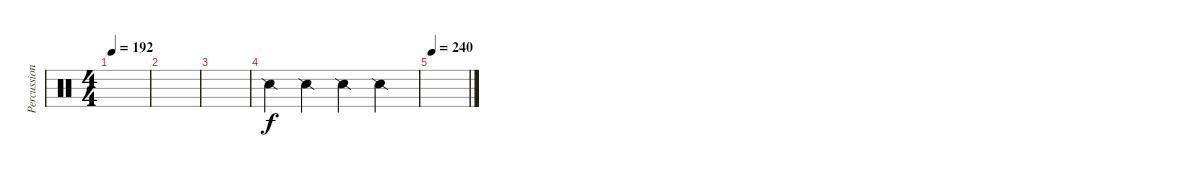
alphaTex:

\track ("Percussion" "Percussion") {instrument percussion}
\staff {score}
\articulation defaults
\ts (4 4)
\tempo 192
\clef neutral
\ks c
|
|
|
"Snare (side stick) 2".4 "Snare (side stick) 2".4 "Snare (side stick) 2".4 "Snare (side stick) 2".4 |
\tempo 240
